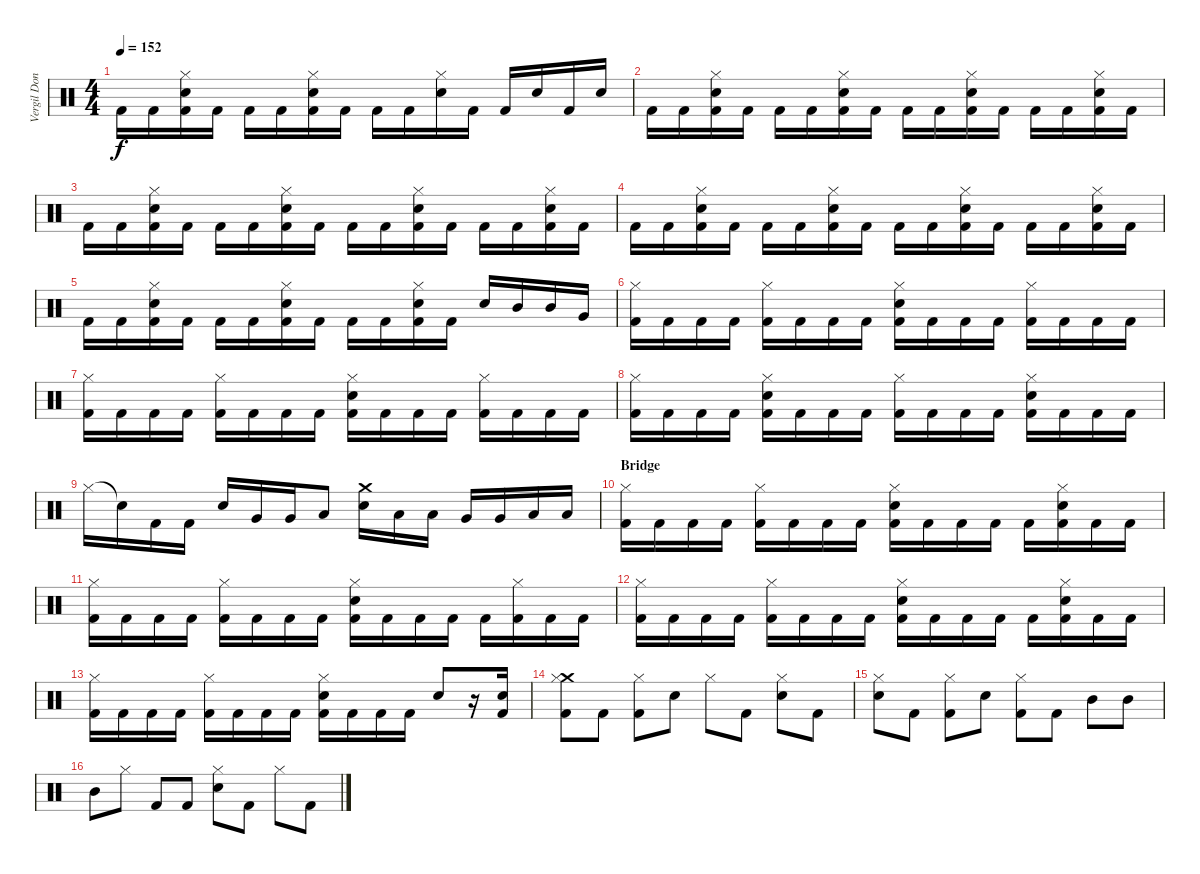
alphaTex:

\track ("Vergil Donati" "Vergil Don") {instrument percussion}
\staff {score}
\articulation defaults
\ts (4 4)
\tempo 152
\clef neutral
\ks c "Kick (hit) 2".16{dy f} "Kick (hit) 2".16
("Electric Snare (hit)" "Hi-Hat (closed)" "Kick (hit) 2").16 "Kick (hit) 2".16 "Kick (hit) 2".16 "Kick (hit) 2".16 ("Electric Snare (hit)" "Hi-Hat (closed)" "Kick (hit) 2").16 "Kick (hit) 2".16 "Kick (hit) 2".16 "Kick (hit) 2".16 ("Electric Snare (hit)" "Hi-Hat (closed)").16 "Kick (hit) 2".16 "Kick (hit) 2".16 "Electric Snare (hit)".16 "Kick (hit) 2".16 "Electric Snare (hit)".16 |
"Kick (hit) 2".16 "Kick (hit) 2".16 ("Electric Snare (hit)" "Hi-Hat (closed)" "Kick (hit) 2").16 "Kick (hit) 2".16 "Kick (hit) 2".16 "Kick (hit) 2".16 ("Electric Snare (hit)" "Hi-Hat (closed)" "Kick (hit) 2").16 "Kick (hit) 2".16 "Kick (hit) 2".16 "Kick (hit) 2".16 ("Electric Snare (hit)" "Hi-Hat (closed)" "Kick (hit) 2").16 "Kick (hit) 2".16 "Kick (hit) 2".16 "Kick (hit) 2".16 ("Electric Snare (hit)" "Hi-Hat (closed)" "Kick (hit) 2").16 "Kick (hit) 2".16 |
"Kick (hit) 2".16 "Kick (hit) 2".16 ("Electric Snare (hit)" "Hi-Hat (closed)" "Kick (hit) 2").16 "Kick (hit) 2".16 "Kick (hit) 2".16 "Kick (hit) 2".16 ("Electric Snare (hit)" "Hi-Hat (closed)" "Kick (hit) 2").16 "Kick (hit) 2".16 "Kick (hit) 2".16 "Kick (hit) 2".16 ("Electric Snare (hit)" "Hi-Hat (closed)" "Kick (hit) 2").16 "Kick (hit) 2".16 "Kick (hit) 2".16 "Kick (hit) 2".16 ("Electric Snare (hit)" "Hi-Hat (closed)" "Kick (hit) 2").16 "Kick (hit) 2".16 |
"Kick (hit) 2".16 "Kick (hit) 2".16 ("Electric Snare (hit)" "Hi-Hat (closed)" "Kick (hit) 2").16 "Kick (hit) 2".16 "Kick (hit) 2".16 "Kick (hit) 2".16 ("Electric Snare (hit)" "Hi-Hat (closed)" "Kick (hit) 2").16 "Kick (hit) 2".16 "Kick (hit) 2".16 "Kick (hit) 2".16 ("Electric Snare (hit)" "Hi-Hat (closed)" "Kick (hit) 2").16 "Kick (hit) 2".16 "Kick (hit) 2".16 "Kick (hit) 2".16 ("Electric Snare (hit)" "Hi-Hat (closed)" "Kick (hit) 2").16 "Kick (hit) 2".16 |
"Kick (hit) 2".16 "Kick (hit) 2".16 ("Electric Snare (hit)" "Hi-Hat (closed)" "Kick (hit) 2").16 "Kick (hit) 2".16 "Kick (hit) 2".16 "Kick (hit) 2".16 ("Electric Snare (hit)" "Hi-Hat (closed)" "Kick (hit) 2").16 "Kick (hit) 2".16 "Kick (hit) 2".16 "Kick (hit) 2".16 ("Electric Snare (hit)" "Hi-Hat (closed)" "Kick (hit) 2").16 "Kick (hit) 2".16 "Electric Snare (hit)".16 "Mid Tom (hit)".16 "Mid Tom (hit)".16 "Very Low Tom (hit)".16 |
("Hi-Hat (closed)" "Kick (hit) 2").16 "Kick (hit) 2".16 "Kick (hit) 2".16 "Kick (hit) 2".16 ("Hi-Hat (closed)" "Kick (hit) 2").16 "Kick (hit) 2".16 "Kick (hit) 2".16 "Kick (hit) 2".16 ("Electric Snare (hit)" "Hi-Hat (closed)" "Kick (hit) 2").16 "Kick (hit) 2".16 "Kick (hit) 2".16 "Kick (hit) 2".16 ("Hi-Hat (closed)" "Kick (hit) 2").16 "Kick (hit) 2".16 "Kick (hit) 2".16 "Kick (hit) 2".16 |
("Hi-Hat (closed)" "Kick (hit) 2").16 "Kick (hit) 2".16 "Kick (hit) 2".16 "Kick (hit) 2".16 ("Hi-Hat (closed)" "Kick (hit) 2").16 "Kick (hit) 2".16 "Kick (hit) 2".16 "Kick (hit) 2".16 ("Electric Snare (hit)" "Hi-Hat (closed)" "Kick (hit) 2").16 "Kick (hit) 2".16 "Kick (hit) 2".16 "Kick (hit) 2".16 ("Hi-Hat (closed)" "Kick (hit) 2").16 "Kick (hit) 2".16 "Kick (hit) 2".16 "Kick (hit) 2".16 |
("Hi-Hat (closed)" "Kick (hit) 2").16 "Kick (hit) 2".16 "Kick (hit) 2".16 "Kick (hit) 2".16 ("Electric Snare (hit)" "Hi-Hat (closed)" "Kick (hit) 2").16 "Kick (hit) 2".16 "Kick (hit) 2".16 "Kick (hit) 2".16 ("Hi-Hat (closed)" "Kick (hit) 2").16 "Kick (hit) 2".16 "Kick (hit) 2".16 "Kick (hit) 2".16 ("Electric Snare (hit)" "Hi-Hat (closed)" "Kick (hit) 2").16 "Kick (hit) 2".16 "Kick (hit) 2".16 "Kick (hit) 2".16 |
"Hi-Hat (closed)".16 "Snare (hit)"{t}.16 "Kick (hit) 2".16 "Kick (hit) 2".16 "Electric Snare (hit)".16 "Very Low Tom (hit)".16 "Very Low Tom (hit)".16 "Low Floor Tom (hit)".8 ("Crash medium (hit)" "Electric Snare (hit)").16 "Low Tom (hit)".16 "Low Tom (hit)".16 "Very Low Tom (hit)".16 "Very Low Tom (hit)".16 "Low Floor Tom (hit)".16 "Low Floor Tom (hit)".16 |
\section ("" "Bridge")
("Hi-Hat (closed)" "Kick (hit) 2").16 "Kick (hit) 2".16 "Kick (hit) 2".16 "Kick (hit) 2".16 ("Hi-Hat (closed)" "Kick (hit) 2").16 "Kick (hit) 2".16 "Kick (hit) 2".16 "Kick (hit) 2".16 ("Electric Snare (hit)" "Hi-Hat (closed)" "Kick (hit) 2").16 "Kick (hit) 2".16 "Kick (hit) 2".16 "Kick (hit) 2".16 "Kick (hit) 2".16 ("Electric Snare (hit)" "Hi-Hat (closed)" "Kick (hit) 2").16 "Kick (hit) 2".16 "Kick (hit) 2".16 |
("Hi-Hat (closed)" "Kick (hit) 2").16 "Kick (hit) 2".16 "Kick (hit) 2".16 "Kick (hit) 2".16 ("Hi-Hat (closed)" "Kick (hit) 2").16 "Kick (hit) 2".16 "Kick (hit) 2".16 "Kick (hit) 2".16 ("Electric Snare (hit)" "Hi-Hat (closed)" "Kick (hit) 2").16 "Kick (hit) 2".16 "Kick (hit) 2".16 "Kick (hit) 2".16 "Kick (hit) 2".16 ("Hi-Hat (closed)" "Kick (hit) 2").16 "Kick (hit) 2".16 "Kick (hit) 2".16 |
("Hi-Hat (closed)" "Kick (hit) 2").16 "Kick (hit) 2".16 "Kick (hit) 2".16 "Kick (hit) 2".16 ("Hi-Hat (closed)" "Kick (hit) 2").16 "Kick (hit) 2".16 "Kick (hit) 2".16 "Kick (hit) 2".16 ("Electric Snare (hit)" "Hi-Hat (closed)" "Kick (hit) 2").16 "Kick (hit) 2".16 "Kick (hit) 2".16 "Kick (hit) 2".16 "Kick (hit) 2".16 ("Electric Snare (hit)" "Hi-Hat (closed)" "Kick (hit) 2").16 "Kick (hit) 2".16 "Kick (hit) 2".16 |
("Hi-Hat (closed)" "Kick (hit) 2").16 "Kick (hit) 2".16 "Kick (hit) 2".16 "Kick (hit) 2".16 ("Hi-Hat (closed)" "Kick (hit) 2").16 "Kick (hit) 2".16 "Kick (hit) 2".16 "Kick (hit) 2".16 ("Electric Snare (hit)" "Hi-Hat (closed)" "Kick (hit) 2").16 "Kick (hit) 2".16 "Kick (hit) 2".16 "Kick (hit) 2".16 "Electric Snare (hit)".8 r.16 ("Electric Snare (hit)" "Kick (hit) 2").16 |
("Crash medium (hit)" "Hi-Hat (closed)" "Kick (hit) 2").8 "Kick (hit) 2".8 ("Hi-Hat (closed)" "Kick (hit) 2").8 "Electric Snare (hit)".8 "Hi-Hat (closed)".8 "Kick (hit) 2".8 ("Electric Snare (hit)" "Hi-Hat (closed)").8 "Kick (hit) 2".8 |
("Electric Snare (hit)" "Hi-Hat (closed)").8 "Kick (hit) 2".8 ("Hi-Hat (closed)" "Kick (hit) 2").8 "Electric Snare (hit)".8 ("Hi-Hat (closed)" "Kick (hit) 2").8 "Kick (hit) 2".8 "Mid Tom (hit)".8 "Mid Tom (hit)".8 |
"Mid Tom (hit)".8 "Hi-Hat (closed)".8 "Kick (hit) 2".8 "Kick (hit) 2".8 ("Electric Snare (hit)" "Hi-Hat (closed)").8 "Kick (hit) 2".8 "Hi-Hat (closed)".8 "Kick (hit) 2".8
